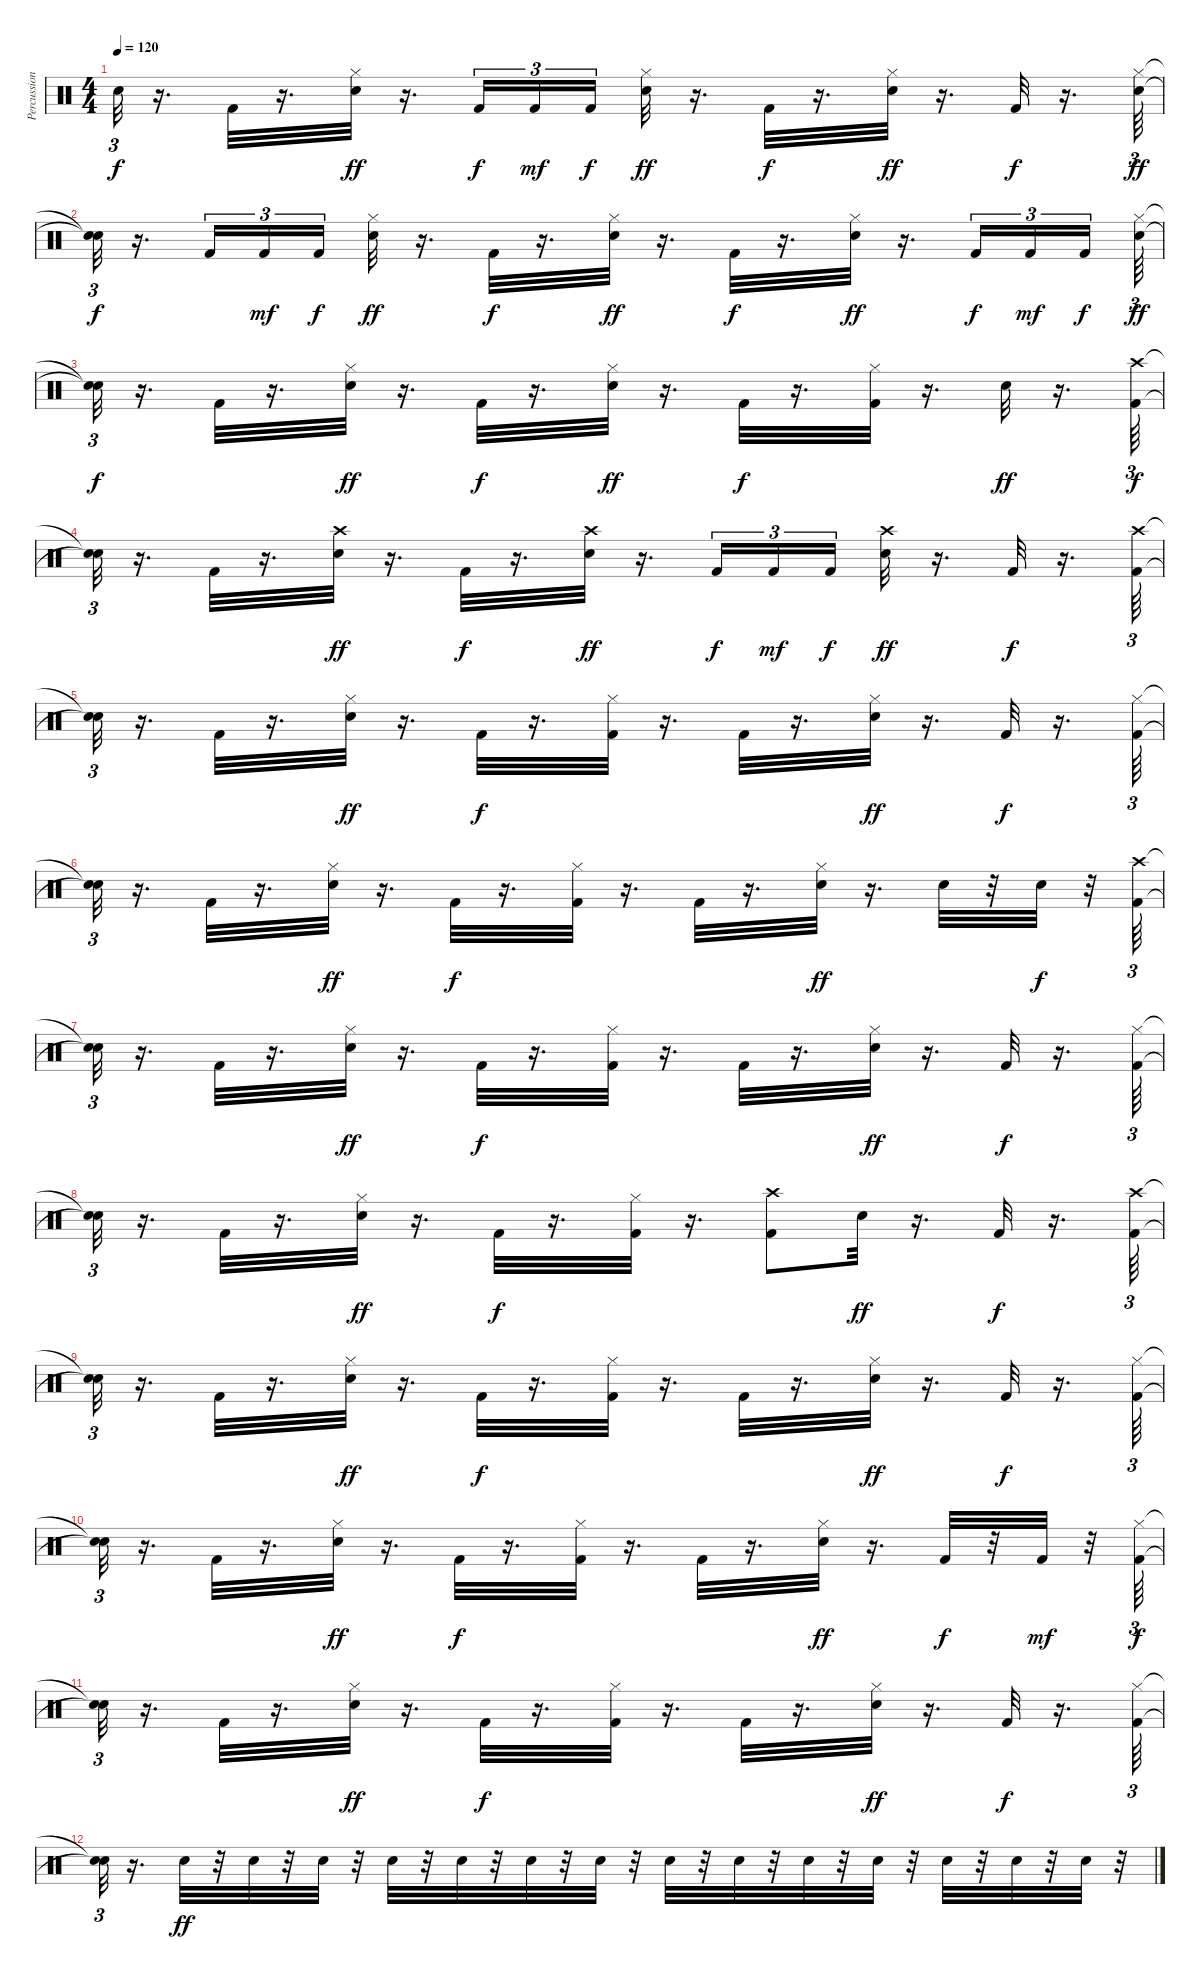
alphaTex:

\track ("Percussion" "Percussion") {instrument percussion}
\staff {score}
\articulation defaults
\ts (4 4)
\tempo 120
\clef neutral
\ks c "Snare (hit)"{t}.32{tu (3 2) dy f}
r.16{d} "Kick (hit) 2".32 r.16{d} ("Snare (hit) 2" "Hi-Hat (closed)").32{dy ff} r.16{d} "Kick (hit) 2".16{tu (3 2) dy f} "Kick (hit) 2".16{tu (3 2) dy mf} "Kick (hit) 2".16{tu (3 2) dy f beam splitsecondary} ("Snare (hit) 2" "Hi-Hat (closed)").32{dy ff} r.16{d} "Kick (hit) 2".32{dy f} r.16{d} ("Snare (hit) 2" "Hi-Hat (closed)").32{dy ff} r.16{d} "Kick (hit) 2".32{dy f} r.16{d} ("Snare (hit) 2" "Hi-Hat (closed)").64{tu (3 2) dy ff} |
("Snare (hit)"{t} "Snare (hit)"{t}).32{tu (3 2) dy f} r.16{d} "Kick (hit) 2".16{tu (3 2)} "Kick (hit) 2".16{tu (3 2) dy mf} "Kick (hit) 2".16{tu (3 2) dy f beam splitsecondary} ("Snare (hit) 2" "Hi-Hat (closed)").32{dy ff} r.16{d} "Kick (hit) 2".32{dy f} r.16{d} ("Snare (hit) 2" "Hi-Hat (closed)").32{dy ff} r.16{d} "Kick (hit) 2".32{dy f} r.16{d} ("Snare (hit) 2" "Hi-Hat (closed)").32{dy ff} r.16{d} "Kick (hit) 2".16{tu (3 2) dy f} "Kick (hit) 2".16{tu (3 2) dy mf} "Kick (hit) 2".16{tu (3 2) dy f beam splitsecondary} ("Snare (hit) 2" "Hi-Hat (closed)").64{tu (3 2) dy ff} |
("Snare (hit)"{t} "Snare (hit)"{t}).32{tu (3 2) dy f} r.16{d} "Kick (hit) 2".32 r.16{d} ("Snare (hit) 2" "Hi-Hat (closed)").32{dy ff} r.16{d} "Kick (hit) 2".32{dy f} r.16{d} ("Snare (hit) 2" "Hi-Hat (closed)").32{dy ff} r.16{d} "Kick (hit) 2".32{dy f} r.16{d} ("Hi-Hat (closed)" "Kick (hit) 2").32 r.16{d} "Snare (hit) 2".32{dy ff} r.16{d} ("Crash high (hit)" "Kick (hit) 2").64{tu (3 2) dy f} |
("Snare (hit)"{t} "Snare (hit)"{t}).32{tu (3 2)} r.16{d} "Kick (hit) 2".32 r.16{d} ("Snare (hit) 2" "Crash high (hit)").32{dy ff} r.16{d} "Kick (hit) 2".32{dy f} r.16{d} ("Snare (hit) 2" "Crash high (hit)").32{dy ff} r.16{d} "Kick (hit) 2".16{tu (3 2) dy f} "Kick (hit) 2".16{tu (3 2) dy mf} "Kick (hit) 2".16{tu (3 2) dy f beam splitsecondary} ("Snare (hit) 2" "Crash high (hit)").32{dy ff} r.16{d} "Kick (hit) 2".32{dy f} r.16{d} ("Crash high (hit)" "Kick (hit) 2").64{tu (3 2)} |
("Snare (hit)"{t} "Snare (hit)"{t}).32{tu (3 2)} r.16{d} "Kick (hit) 2".32 r.16{d} ("Snare (hit) 2" "Hi-Hat (closed)").32{dy ff} r.16{d} "Kick (hit) 2".32{dy f} r.16{d} ("Hi-Hat (closed)" "Kick (hit) 2").32 r.16{d} "Kick (hit) 2".32 r.16{d} ("Snare (hit) 2" "Hi-Hat (closed)").32{dy ff} r.16{d} "Kick (hit) 2".32{dy f} r.16{d} ("Hi-Hat (closed)" "Kick (hit) 2").64{tu (3 2)} |
("Snare (hit)"{t} "Snare (hit)"{t}).32{tu (3 2)} r.16{d} "Kick (hit) 2".32 r.16{d} ("Snare (hit) 2" "Hi-Hat (closed)").32{dy ff} r.16{d} "Kick (hit) 2".32{dy f} r.16{d} ("Hi-Hat (closed)" "Kick (hit) 2").32 r.16{d} "Kick (hit) 2".32 r.16{d} ("Hi-Hat (closed)" "Snare (hit) 2").32{dy ff} r.16{d} "Snare (hit) 2".32 r.32 "Snare (hit) 2".32{dy f} r.32 ("Crash high (hit)" "Kick (hit) 2").64{tu (3 2)} |
("Snare (hit)"{t} "Snare (hit)"{t}).32{tu (3 2)} r.16{d} "Kick (hit) 2".32 r.16{d} ("Snare (hit) 2" "Hi-Hat (closed)").32{dy ff} r.16{d} "Kick (hit) 2".32{dy f} r.16{d} ("Hi-Hat (closed)" "Kick (hit) 2").32 r.16{d} "Kick (hit) 2".32 r.16{d} ("Snare (hit) 2" "Hi-Hat (closed)").32{dy ff} r.16{d} "Kick (hit) 2".32{dy f} r.16{d} ("Hi-Hat (closed)" "Kick (hit) 2").64{tu (3 2)} |
("Snare (hit)"{t} "Snare (hit)"{t}).32{tu (3 2)} r.16{d} "Kick (hit) 2".32 r.16{d} ("Snare (hit) 2" "Hi-Hat (closed)").32{dy ff} r.16{d} "Kick (hit) 2".32{dy f} r.16{d} ("Hi-Hat (closed)" "Kick (hit) 2").32 r.16{d} ("Crash high (hit)" "Kick (hit) 2").8 "Snare (hit) 2".32{dy ff} r.16{d} "Kick (hit) 2".32{dy f} r.16{d} ("Crash high (hit)" "Kick (hit) 2").64{tu (3 2)} |
("Snare (hit)"{t} "Snare (hit)"{t}).32{tu (3 2)} r.16{d} "Kick (hit) 2".32 r.16{d} ("Snare (hit) 2" "Hi-Hat (closed)").32{dy ff} r.16{d} "Kick (hit) 2".32{dy f} r.16{d} ("Hi-Hat (closed)" "Kick (hit) 2").32 r.16{d} "Kick (hit) 2".32 r.16{d} ("Snare (hit) 2" "Hi-Hat (closed)").32{dy ff} r.16{d} "Kick (hit) 2".32{dy f} r.16{d} ("Hi-Hat (closed)" "Kick (hit) 2").64{tu (3 2)} |
("Snare (hit)"{t} "Snare (hit)"{t}).32{tu (3 2)} r.16{d} "Kick (hit) 2".32 r.16{d} ("Snare (hit) 2" "Hi-Hat (closed)").32{dy ff} r.16{d} "Kick (hit) 2".32{dy f} r.16{d} ("Hi-Hat (closed)" "Kick (hit) 2").32 r.16{d} "Kick (hit) 2".32 r.16{d} ("Snare (hit) 2" "Hi-Hat (closed)").32{dy ff} r.16{d} "Kick (hit) 2".32{dy f} r.32 "Kick (hit) 2".32{dy mf} r.32 ("Hi-Hat (closed)" "Kick (hit) 2").64{tu (3 2) dy f} |
("Snare (hit)"{t} "Snare (hit)"{t}).32{tu (3 2)} r.16{d} "Kick (hit) 2".32 r.16{d} ("Snare (hit) 2" "Hi-Hat (closed)").32{dy ff} r.16{d} "Kick (hit) 2".32{dy f} r.16{d} ("Hi-Hat (closed)" "Kick (hit) 2").32 r.16{d} "Kick (hit) 2".32 r.16{d} ("Snare (hit) 2" "Hi-Hat (closed)").32{dy ff} r.16{d} "Kick (hit) 2".32{dy f} r.16{d} ("Hi-Hat (closed)" "Kick (hit) 2").64{tu (3 2)} |
("Snare (hit)"{t} "Snare (hit)"{t}).32{tu (3 2)} r.16{d} "Snare (hit) 2".32{dy ff} r.32 "Snare (hit) 2".32 r.32 "Snare (hit) 2".32 r.32 "Snare (hit) 2".32 r.32 "Snare (hit) 2".32 r.32 "Snare (hit) 2".32 r.32 "Snare (hit) 2".32 r.32 "Snare (hit) 2".32 r.32 "Snare (hit) 2".32 r.32 "Snare (hit) 2".32 r.32 "Snare (hit) 2".32 r.32 "Snare (hit) 2".32 r.32 "Snare (hit) 2".32 r.32 "Snare (hit) 2".32 r.32
